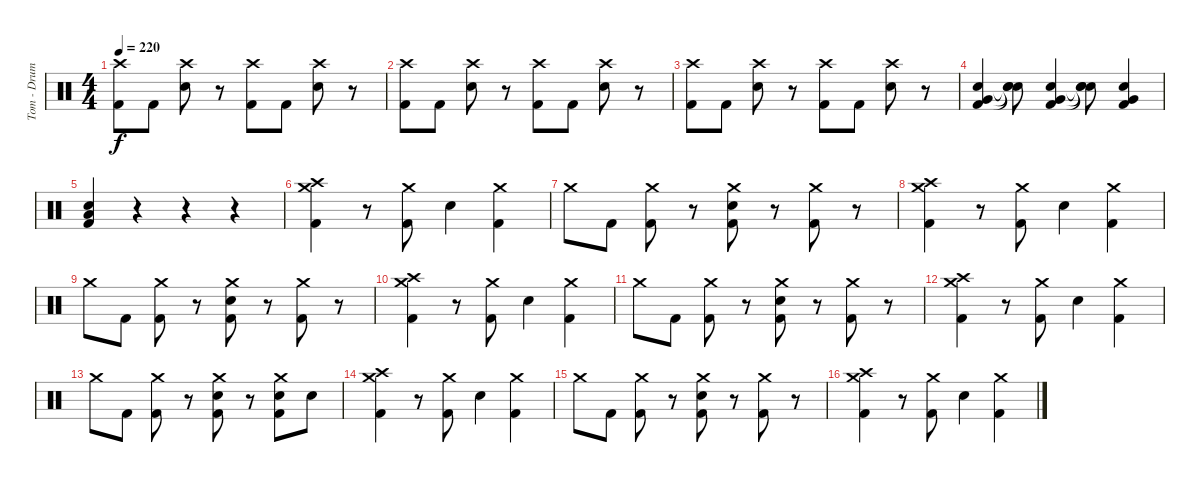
\track ("Tom - Drums" "Tom - Drum") {instrument percussion}
\staff {score}
\articulation defaults
\ts (4 4)
\tempo 220
\clef neutral
\ks c
("Crash high (hit)" "Kick (hit) 2").8{dy f} "Kick (hit) 2".8 ("Crash high (hit)" "Electric Snare (hit)").8 r.8 ("Crash high (hit)" "Kick (hit) 2").8 "Kick (hit) 2".8 ("Crash high (hit)" "Electric Snare (hit)").8 r.8 |
("Crash high (hit)" "Kick (hit) 2").8 "Kick (hit) 2".8 ("Crash high (hit)" "Electric Snare (hit)").8 r.8 ("Crash high (hit)" "Kick (hit) 2").8 "Kick (hit) 2".8 ("Crash high (hit)" "Electric Snare (hit)").8 r.8 |
("Crash high (hit)" "Kick (hit) 2").8 "Kick (hit) 2".8 ("Crash high (hit)" "Electric Snare (hit)").8 r.8 ("Crash high (hit)" "Kick (hit) 2").8 "Kick (hit) 2".8 ("Crash high (hit)" "Electric Snare (hit)").8 r.8 |
("Very Low Tom (hit)" "Electric Snare (hit)" "Kick (hit) 2").4 ("Snare (hit)"{t} "Snare (hit)"{t} "Snare (hit)"{t}).8 ("Very Low Tom (hit)" "Electric Snare (hit)" "Kick (hit) 2").4 ("Snare (hit)"{t} "Snare (hit)"{t} "Snare (hit)"{t}).8 ("Very Low Tom (hit)" "Electric Snare (hit)" "Kick (hit) 2").4 |
("Low Tom (hit)" "Electric Snare (hit)" "Kick (hit) 2").4 r.4 r.4 r.4 |
("Crash high (hit)" "Crash medium (hit)" "Kick (hit) 2").4 r.8 ("Crash medium (hit)" "Kick (hit) 2").8 "Electric Snare (hit)".4 ("Crash medium (hit)" "Kick (hit) 2").4 |
"Crash medium (hit)".8 "Kick (hit) 2".8 ("Crash medium (hit)" "Kick (hit) 2").8 r.8 ("Crash medium (hit)" "Electric Snare (hit)" "Kick (hit) 2").8 r.8 ("Crash medium (hit)" "Kick (hit) 2").8 r.8 |
("Crash high (hit)" "Crash medium (hit)" "Kick (hit) 2").4 r.8 ("Crash medium (hit)" "Kick (hit) 2").8 "Electric Snare (hit)".4 ("Crash medium (hit)" "Kick (hit) 2").4 |
"Crash medium (hit)".8 "Kick (hit) 2".8 ("Crash medium (hit)" "Kick (hit) 2").8 r.8 ("Crash medium (hit)" "Electric Snare (hit)" "Kick (hit) 2").8 r.8 ("Crash medium (hit)" "Kick (hit) 2").8 r.8 |
("Crash high (hit)" "Crash medium (hit)" "Kick (hit) 2").4 r.8 ("Crash medium (hit)" "Kick (hit) 2").8 "Electric Snare (hit)".4 ("Crash medium (hit)" "Kick (hit) 2").4 |
"Crash medium (hit)".8 "Kick (hit) 2".8 ("Crash medium (hit)" "Kick (hit) 2").8 r.8 ("Crash medium (hit)" "Electric Snare (hit)" "Kick (hit) 2").8 r.8 ("Crash medium (hit)" "Kick (hit) 2").8 r.8 |
("Crash high (hit)" "Crash medium (hit)" "Kick (hit) 2").4 r.8 ("Crash medium (hit)" "Kick (hit) 2").8 "Electric Snare (hit)".4 ("Crash medium (hit)" "Kick (hit) 2").4 |
"Crash medium (hit)".8 "Kick (hit) 2".8 ("Crash medium (hit)" "Kick (hit) 2").8 r.8 ("Crash medium (hit)" "Electric Snare (hit)" "Kick (hit) 2").8 r.8 ("Crash medium (hit)" "Electric Snare (hit)" "Kick (hit) 2").8 "Electric Snare (hit)".8 |
("Crash high (hit)" "Crash medium (hit)" "Kick (hit) 2").4 r.8 ("Crash medium (hit)" "Kick (hit) 2").8 "Electric Snare (hit)".4 ("Crash medium (hit)" "Kick (hit) 2").4 |
"Crash medium (hit)".8 "Kick (hit) 2".8 ("Crash medium (hit)" "Kick (hit) 2").8 r.8 ("Crash medium (hit)" "Electric Snare (hit)" "Kick (hit) 2").8 r.8 ("Crash medium (hit)" "Kick (hit) 2").8 r.8 |
("Crash high (hit)" "Crash medium (hit)" "Kick (hit) 2").4 r.8 ("Crash medium (hit)" "Kick (hit) 2").8 "Electric Snare (hit)".4 ("Crash medium (hit)" "Kick (hit) 2").4
